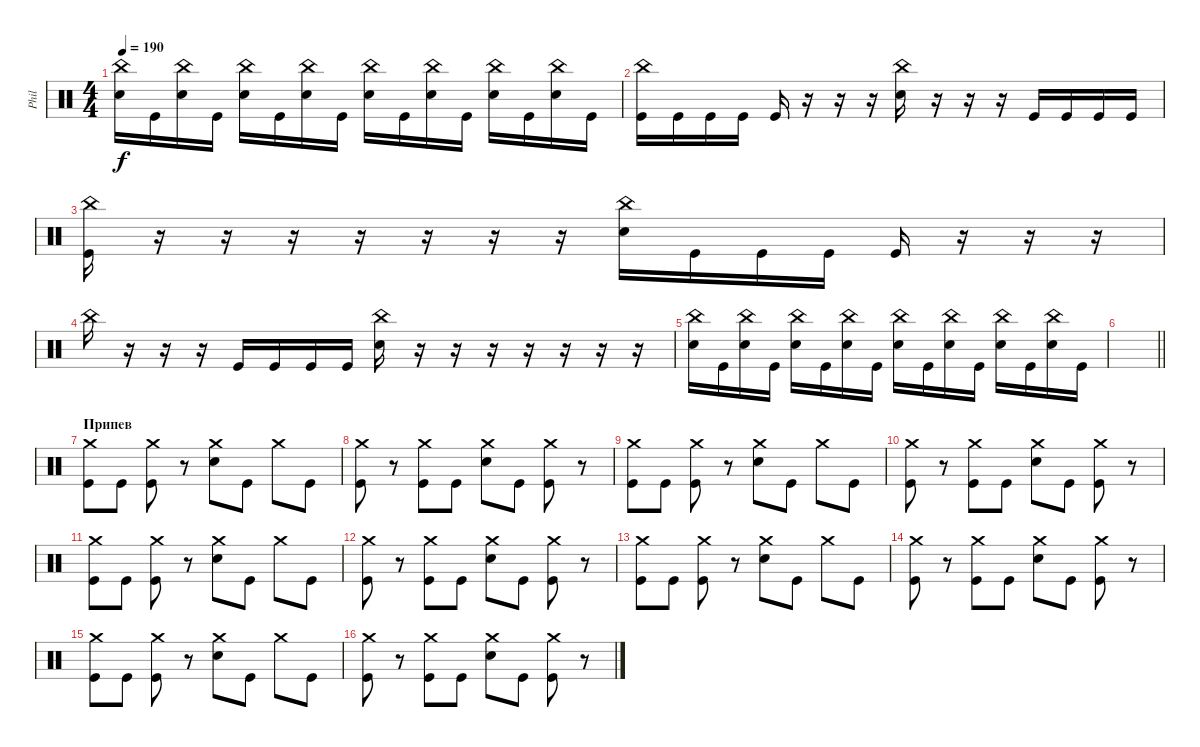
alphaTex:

\track ("Phil" "Phil") {instrument percussion}
\staff {score}
\articulation defaults
\ts (4 4)
\tempo 190
\clef neutral
\ks c
("China (hit)" "Electric Snare (hit)").16{dy f} "Kick (hit)".16 ("China (hit)" "Electric Snare (hit)").16 "Kick (hit)".16 ("China (hit)" "Electric Snare (hit)").16 "Kick (hit)".16 ("China (hit)" "Electric Snare (hit)").16 "Kick (hit)".16 ("China (hit)" "Electric Snare (hit)").16 "Kick (hit)".16 ("China (hit)" "Electric Snare (hit)").16 "Kick (hit)".16 ("China (hit)" "Electric Snare (hit)").16 "Kick (hit)".16 ("China (hit)" "Electric Snare (hit)").16 "Kick (hit)".16 |
("China (hit)" "Kick (hit)").16 "Kick (hit)".16 "Kick (hit)".16 "Kick (hit)".16 "Kick (hit)".16 r.16 r.16 r.16 ("China (hit)" "Electric Snare (hit)").16 r.16 r.16 r.16 "Kick (hit)".16 "Kick (hit)".16 "Kick (hit)".16 "Kick (hit)".16 |
("China (hit)" "Kick (hit)").16 r.16 r.16 r.16 r.16 r.16 r.16 r.16 ("China (hit)" "Electric Snare (hit)").16 "Kick (hit)".16 "Kick (hit)".16 "Kick (hit)".16 "Kick (hit)".16 r.16 r.16 r.16 |
"China (hit)".16 r.16 r.16 r.16 "Kick (hit)".16 "Kick (hit)".16 "Kick (hit)".16 "Kick (hit)".16 ("China (hit)" "Electric Snare (hit)").16 r.16 r.16 r.16 r.16 r.16 r.16 r.16 |
("China (hit)" "Electric Snare (hit)").16 "Kick (hit)".16 ("China (hit)" "Electric Snare (hit)").16 "Kick (hit)".16 ("China (hit)" "Electric Snare (hit)").16 "Kick (hit)".16 ("China (hit)" "Electric Snare (hit)").16 "Kick (hit)".16 ("China (hit)" "Electric Snare (hit)").16 "Kick (hit)".16 ("China (hit)" "Electric Snare (hit)").16 "Kick (hit)".16 ("China (hit)" "Electric Snare (hit)").16 "Kick (hit)".16 ("China (hit)" "Electric Snare (hit)").16 "Kick (hit)".16 |
\barLineRight lightlight
|
\section ("" "Припев")
("Crash medium (hit)" "Kick (hit)").8 "Kick (hit)".8 ("Crash medium (hit)" "Kick (hit)").8 r.8 ("Crash medium (hit)" "Electric Snare (hit)").8 "Kick (hit)".8 "Crash medium (hit)".8 "Kick (hit)".8 |
("Crash medium (hit)" "Kick (hit)").8 r.8 ("Crash medium (hit)" "Kick (hit)").8 "Kick (hit)".8 ("Crash medium (hit)" "Electric Snare (hit)").8 "Kick (hit)".8 ("Crash medium (hit)" "Kick (hit)").8 r.8 |
("Crash medium (hit)" "Kick (hit)").8 "Kick (hit)".8 ("Crash medium (hit)" "Kick (hit)").8 r.8 ("Crash medium (hit)" "Electric Snare (hit)").8 "Kick (hit)".8 "Crash medium (hit)".8 "Kick (hit)".8 |
("Crash medium (hit)" "Kick (hit)").8 r.8 ("Crash medium (hit)" "Kick (hit)").8 "Kick (hit)".8 ("Crash medium (hit)" "Electric Snare (hit)").8 "Kick (hit)".8 ("Crash medium (hit)" "Kick (hit)").8 r.8 |
("Crash medium (hit)" "Kick (hit)").8 "Kick (hit)".8 ("Crash medium (hit)" "Kick (hit)").8 r.8 ("Crash medium (hit)" "Electric Snare (hit)").8 "Kick (hit)".8 "Crash medium (hit)".8 "Kick (hit)".8 |
("Crash medium (hit)" "Kick (hit)").8 r.8 ("Crash medium (hit)" "Kick (hit)").8 "Kick (hit)".8 ("Crash medium (hit)" "Electric Snare (hit)").8 "Kick (hit)".8 ("Crash medium (hit)" "Kick (hit)").8 r.8 |
("Crash medium (hit)" "Kick (hit)").8 "Kick (hit)".8 ("Crash medium (hit)" "Kick (hit)").8 r.8 ("Crash medium (hit)" "Electric Snare (hit)").8 "Kick (hit)".8 "Crash medium (hit)".8 "Kick (hit)".8 |
("Crash medium (hit)" "Kick (hit)").8 r.8 ("Crash medium (hit)" "Kick (hit)").8 "Kick (hit)".8 ("Crash medium (hit)" "Electric Snare (hit)").8 "Kick (hit)".8 ("Crash medium (hit)" "Kick (hit)").8 r.8 |
("Crash medium (hit)" "Kick (hit)").8 "Kick (hit)".8 ("Crash medium (hit)" "Kick (hit)").8 r.8 ("Crash medium (hit)" "Electric Snare (hit)").8 "Kick (hit)".8 "Crash medium (hit)".8 "Kick (hit)".8 |
("Crash medium (hit)" "Kick (hit)").8 r.8 ("Crash medium (hit)" "Kick (hit)").8 "Kick (hit)".8 ("Crash medium (hit)" "Electric Snare (hit)").8 "Kick (hit)".8 ("Crash medium (hit)" "Kick (hit)").8 r.8
